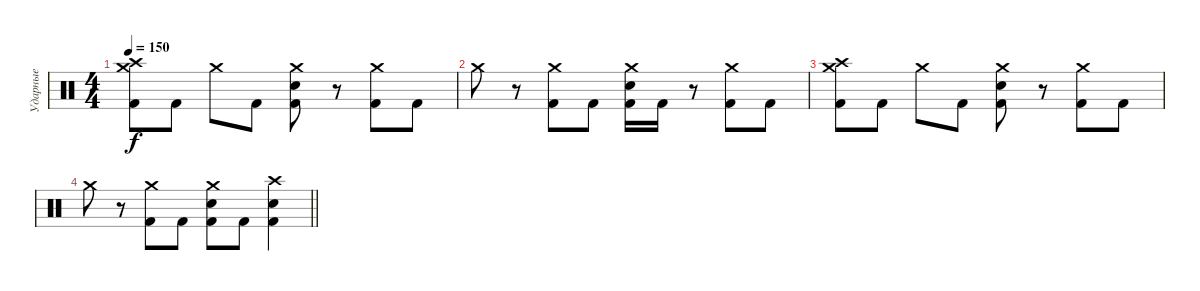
\track ("Ударные" "Ударные") {instrument percussion}
\staff {score}
\articulation defaults
\ts (4 4)
\tempo 150
\clef neutral
\ks c
("Crash high (hit)" "Crash medium (hit)" "Kick (hit) 2").8{dy f} "Kick (hit) 2".8 "Crash medium (hit)".8 "Kick (hit) 2".8 ("Crash medium (hit)" "Electric Snare (hit)" "Kick (hit) 2").8 r.8 ("Crash medium (hit)" "Kick (hit) 2").8 "Kick (hit) 2".8 |
"Crash medium (hit)".8 r.8 ("Crash medium (hit)" "Kick (hit) 2").8 "Kick (hit) 2".8 ("Crash medium (hit)" "Electric Snare (hit)" "Kick (hit) 2").16 "Kick (hit) 2".16 r.8 ("Crash medium (hit)" "Kick (hit) 2").8 "Kick (hit) 2".8 |
("Crash high (hit)" "Crash medium (hit)" "Kick (hit) 2").8 "Kick (hit) 2".8 "Crash medium (hit)".8 "Kick (hit) 2".8 ("Crash medium (hit)" "Electric Snare (hit)" "Kick (hit) 2").8 r.8 ("Crash medium (hit)" "Kick (hit) 2").8 "Kick (hit) 2".8 |
\barLineRight lightlight "Crash medium (hit)".8
r.8 ("Crash medium (hit)" "Kick (hit) 2").8 "Kick (hit) 2".8 ("Crash medium (hit)" "Electric Snare (hit)" "Kick (hit) 2").8 "Kick (hit) 2".8 ("Crash high (hit)" "Electric Snare (hit)" "Kick (hit) 2").4
